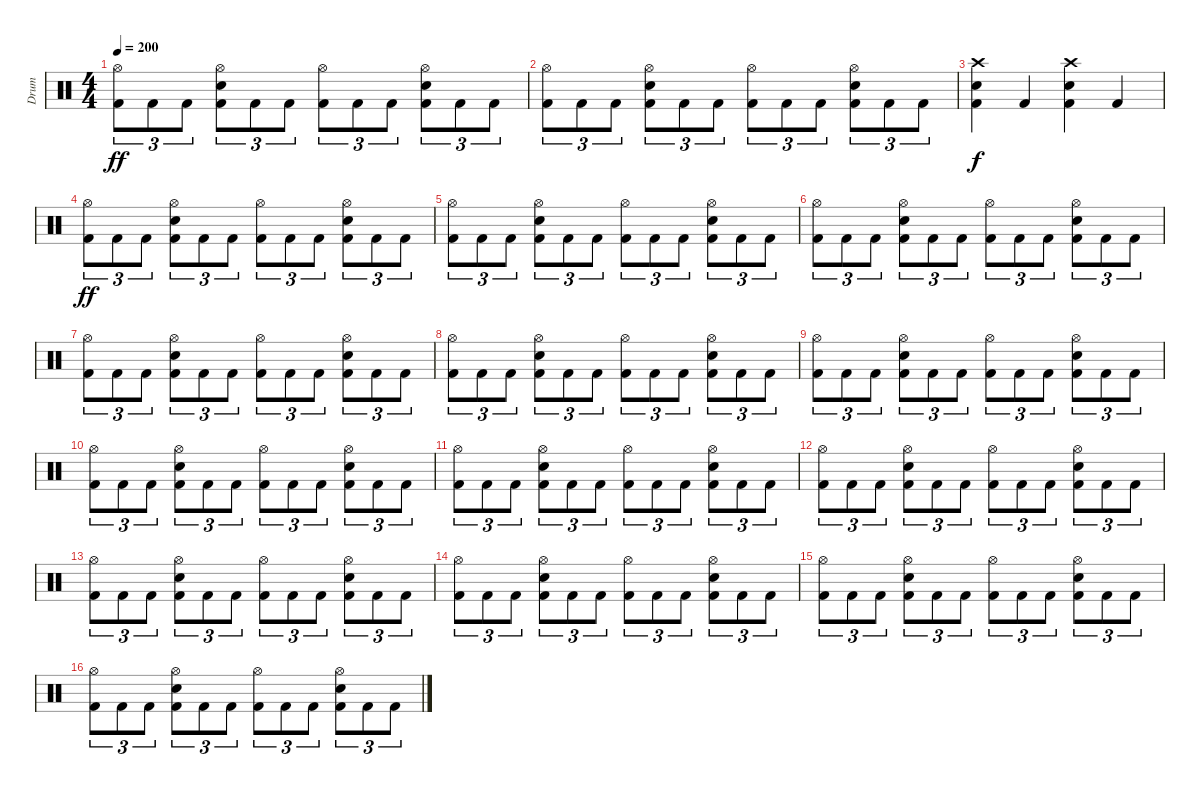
\track ("Drum" "Drum") {instrument percussion}
\staff {score}
\articulation defaults
\ts (4 4)
\tempo 200
\clef neutral
\ks c
("Hi-Hat (open)" "Kick (hit) 2").8{tu (3 2) dy ff} "Kick (hit) 2".8{tu (3 2)} "Kick (hit) 2".8{tu (3 2)} ("Hi-Hat (open)" "Snare (hit) 2" "Kick (hit) 2").8{tu (3 2)} "Kick (hit) 2".8{tu (3 2)} "Kick (hit) 2".8{tu (3 2)} ("Hi-Hat (open)" "Kick (hit) 2").8{tu (3 2)} "Kick (hit) 2".8{tu (3 2)} "Kick (hit) 2".8{tu (3 2)} ("Hi-Hat (open)" "Snare (hit) 2" "Kick (hit) 2").8{tu (3 2)} "Kick (hit) 2".8{tu (3 2)} "Kick (hit) 2".8{tu (3 2)} |
("Hi-Hat (open)" "Kick (hit) 2").8{tu (3 2)} "Kick (hit) 2".8{tu (3 2)} "Kick (hit) 2".8{tu (3 2)} ("Hi-Hat (open)" "Snare (hit) 2" "Kick (hit) 2").8{tu (3 2)} "Kick (hit) 2".8{tu (3 2)} "Kick (hit) 2".8{tu (3 2)} ("Hi-Hat (open)" "Kick (hit) 2").8{tu (3 2)} "Kick (hit) 2".8{tu (3 2)} "Kick (hit) 2".8{tu (3 2)} ("Hi-Hat (open)" "Snare (hit) 2" "Kick (hit) 2").8{tu (3 2)} "Kick (hit) 2".8{tu (3 2)} "Kick (hit) 2".8{tu (3 2)} |
("Crash high (hit)" "Snare (hit) 2" "Kick (hit) 2").4{dy f} "Kick (hit) 2".4 ("Crash high (hit)" "Snare (hit) 2" "Kick (hit) 2").4 "Kick (hit) 2".4 |
("Hi-Hat (open)" "Kick (hit) 2").8{tu (3 2) dy ff} "Kick (hit) 2".8{tu (3 2)} "Kick (hit) 2".8{tu (3 2)} ("Hi-Hat (open)" "Snare (hit) 2" "Kick (hit) 2").8{tu (3 2)} "Kick (hit) 2".8{tu (3 2)} "Kick (hit) 2".8{tu (3 2)} ("Hi-Hat (open)" "Kick (hit) 2").8{tu (3 2)} "Kick (hit) 2".8{tu (3 2)} "Kick (hit) 2".8{tu (3 2)} ("Hi-Hat (open)" "Snare (hit) 2" "Kick (hit) 2").8{tu (3 2)} "Kick (hit) 2".8{tu (3 2)} "Kick (hit) 2".8{tu (3 2)} |
("Hi-Hat (open)" "Kick (hit) 2").8{tu (3 2)} "Kick (hit) 2".8{tu (3 2)} "Kick (hit) 2".8{tu (3 2)} ("Hi-Hat (open)" "Snare (hit) 2" "Kick (hit) 2").8{tu (3 2)} "Kick (hit) 2".8{tu (3 2)} "Kick (hit) 2".8{tu (3 2)} ("Hi-Hat (open)" "Kick (hit) 2").8{tu (3 2)} "Kick (hit) 2".8{tu (3 2)} "Kick (hit) 2".8{tu (3 2)} ("Hi-Hat (open)" "Snare (hit) 2" "Kick (hit) 2").8{tu (3 2)} "Kick (hit) 2".8{tu (3 2)} "Kick (hit) 2".8{tu (3 2)} |
("Hi-Hat (open)" "Kick (hit) 2").8{tu (3 2)} "Kick (hit) 2".8{tu (3 2)} "Kick (hit) 2".8{tu (3 2)} ("Hi-Hat (open)" "Snare (hit) 2" "Kick (hit) 2").8{tu (3 2)} "Kick (hit) 2".8{tu (3 2)} "Kick (hit) 2".8{tu (3 2)} ("Hi-Hat (open)" "Kick (hit) 2").8{tu (3 2)} "Kick (hit) 2".8{tu (3 2)} "Kick (hit) 2".8{tu (3 2)} ("Hi-Hat (open)" "Snare (hit) 2" "Kick (hit) 2").8{tu (3 2)} "Kick (hit) 2".8{tu (3 2)} "Kick (hit) 2".8{tu (3 2)} |
("Hi-Hat (open)" "Kick (hit) 2").8{tu (3 2)} "Kick (hit) 2".8{tu (3 2)} "Kick (hit) 2".8{tu (3 2)} ("Hi-Hat (open)" "Snare (hit) 2" "Kick (hit) 2").8{tu (3 2)} "Kick (hit) 2".8{tu (3 2)} "Kick (hit) 2".8{tu (3 2)} ("Hi-Hat (open)" "Kick (hit) 2").8{tu (3 2)} "Kick (hit) 2".8{tu (3 2)} "Kick (hit) 2".8{tu (3 2)} ("Hi-Hat (open)" "Snare (hit) 2" "Kick (hit) 2").8{tu (3 2)} "Kick (hit) 2".8{tu (3 2)} "Kick (hit) 2".8{tu (3 2)} |
("Hi-Hat (open)" "Kick (hit) 2").8{tu (3 2)} "Kick (hit) 2".8{tu (3 2)} "Kick (hit) 2".8{tu (3 2)} ("Hi-Hat (open)" "Snare (hit) 2" "Kick (hit) 2").8{tu (3 2)} "Kick (hit) 2".8{tu (3 2)} "Kick (hit) 2".8{tu (3 2)} ("Hi-Hat (open)" "Kick (hit) 2").8{tu (3 2)} "Kick (hit) 2".8{tu (3 2)} "Kick (hit) 2".8{tu (3 2)} ("Hi-Hat (open)" "Snare (hit) 2" "Kick (hit) 2").8{tu (3 2)} "Kick (hit) 2".8{tu (3 2)} "Kick (hit) 2".8{tu (3 2)} |
("Hi-Hat (open)" "Kick (hit) 2").8{tu (3 2)} "Kick (hit) 2".8{tu (3 2)} "Kick (hit) 2".8{tu (3 2)} ("Hi-Hat (open)" "Snare (hit) 2" "Kick (hit) 2").8{tu (3 2)} "Kick (hit) 2".8{tu (3 2)} "Kick (hit) 2".8{tu (3 2)} ("Hi-Hat (open)" "Kick (hit) 2").8{tu (3 2)} "Kick (hit) 2".8{tu (3 2)} "Kick (hit) 2".8{tu (3 2)} ("Hi-Hat (open)" "Snare (hit) 2" "Kick (hit) 2").8{tu (3 2)} "Kick (hit) 2".8{tu (3 2)} "Kick (hit) 2".8{tu (3 2)} |
("Hi-Hat (open)" "Kick (hit) 2").8{tu (3 2)} "Kick (hit) 2".8{tu (3 2)} "Kick (hit) 2".8{tu (3 2)} ("Hi-Hat (open)" "Snare (hit) 2" "Kick (hit) 2").8{tu (3 2)} "Kick (hit) 2".8{tu (3 2)} "Kick (hit) 2".8{tu (3 2)} ("Hi-Hat (open)" "Kick (hit) 2").8{tu (3 2)} "Kick (hit) 2".8{tu (3 2)} "Kick (hit) 2".8{tu (3 2)} ("Hi-Hat (open)" "Snare (hit) 2" "Kick (hit) 2").8{tu (3 2)} "Kick (hit) 2".8{tu (3 2)} "Kick (hit) 2".8{tu (3 2)} |
("Hi-Hat (open)" "Kick (hit) 2").8{tu (3 2)} "Kick (hit) 2".8{tu (3 2)} "Kick (hit) 2".8{tu (3 2)} ("Hi-Hat (open)" "Snare (hit) 2" "Kick (hit) 2").8{tu (3 2)} "Kick (hit) 2".8{tu (3 2)} "Kick (hit) 2".8{tu (3 2)} ("Hi-Hat (open)" "Kick (hit) 2").8{tu (3 2)} "Kick (hit) 2".8{tu (3 2)} "Kick (hit) 2".8{tu (3 2)} ("Hi-Hat (open)" "Snare (hit) 2" "Kick (hit) 2").8{tu (3 2)} "Kick (hit) 2".8{tu (3 2)} "Kick (hit) 2".8{tu (3 2)} |
("Hi-Hat (open)" "Kick (hit) 2").8{tu (3 2)} "Kick (hit) 2".8{tu (3 2)} "Kick (hit) 2".8{tu (3 2)} ("Hi-Hat (open)" "Snare (hit) 2" "Kick (hit) 2").8{tu (3 2)} "Kick (hit) 2".8{tu (3 2)} "Kick (hit) 2".8{tu (3 2)} ("Hi-Hat (open)" "Kick (hit) 2").8{tu (3 2)} "Kick (hit) 2".8{tu (3 2)} "Kick (hit) 2".8{tu (3 2)} ("Hi-Hat (open)" "Snare (hit) 2" "Kick (hit) 2").8{tu (3 2)} "Kick (hit) 2".8{tu (3 2)} "Kick (hit) 2".8{tu (3 2)} |
("Hi-Hat (open)" "Kick (hit) 2").8{tu (3 2)} "Kick (hit) 2".8{tu (3 2)} "Kick (hit) 2".8{tu (3 2)} ("Hi-Hat (open)" "Snare (hit) 2" "Kick (hit) 2").8{tu (3 2)} "Kick (hit) 2".8{tu (3 2)} "Kick (hit) 2".8{tu (3 2)} ("Hi-Hat (open)" "Kick (hit) 2").8{tu (3 2)} "Kick (hit) 2".8{tu (3 2)} "Kick (hit) 2".8{tu (3 2)} ("Hi-Hat (open)" "Snare (hit) 2" "Kick (hit) 2").8{tu (3 2)} "Kick (hit) 2".8{tu (3 2)} "Kick (hit) 2".8{tu (3 2)} |
("Hi-Hat (open)" "Kick (hit) 2").8{tu (3 2)} "Kick (hit) 2".8{tu (3 2)} "Kick (hit) 2".8{tu (3 2)} ("Hi-Hat (open)" "Snare (hit) 2" "Kick (hit) 2").8{tu (3 2)} "Kick (hit) 2".8{tu (3 2)} "Kick (hit) 2".8{tu (3 2)} ("Hi-Hat (open)" "Kick (hit) 2").8{tu (3 2)} "Kick (hit) 2".8{tu (3 2)} "Kick (hit) 2".8{tu (3 2)} ("Hi-Hat (open)" "Snare (hit) 2" "Kick (hit) 2").8{tu (3 2)} "Kick (hit) 2".8{tu (3 2)} "Kick (hit) 2".8{tu (3 2)} |
("Hi-Hat (open)" "Kick (hit) 2").8{tu (3 2)} "Kick (hit) 2".8{tu (3 2)} "Kick (hit) 2".8{tu (3 2)} ("Hi-Hat (open)" "Snare (hit) 2" "Kick (hit) 2").8{tu (3 2)} "Kick (hit) 2".8{tu (3 2)} "Kick (hit) 2".8{tu (3 2)} ("Hi-Hat (open)" "Kick (hit) 2").8{tu (3 2)} "Kick (hit) 2".8{tu (3 2)} "Kick (hit) 2".8{tu (3 2)} ("Hi-Hat (open)" "Snare (hit) 2" "Kick (hit) 2").8{tu (3 2)} "Kick (hit) 2".8{tu (3 2)} "Kick (hit) 2".8{tu (3 2)} |
("Hi-Hat (open)" "Kick (hit) 2").8{tu (3 2)} "Kick (hit) 2".8{tu (3 2)} "Kick (hit) 2".8{tu (3 2)} ("Hi-Hat (open)" "Snare (hit) 2" "Kick (hit) 2").8{tu (3 2)} "Kick (hit) 2".8{tu (3 2)} "Kick (hit) 2".8{tu (3 2)} ("Hi-Hat (open)" "Kick (hit) 2").8{tu (3 2)} "Kick (hit) 2".8{tu (3 2)} "Kick (hit) 2".8{tu (3 2)} ("Hi-Hat (open)" "Snare (hit) 2" "Kick (hit) 2").8{tu (3 2)} "Kick (hit) 2".8{tu (3 2)} "Kick (hit) 2".8{tu (3 2)}
